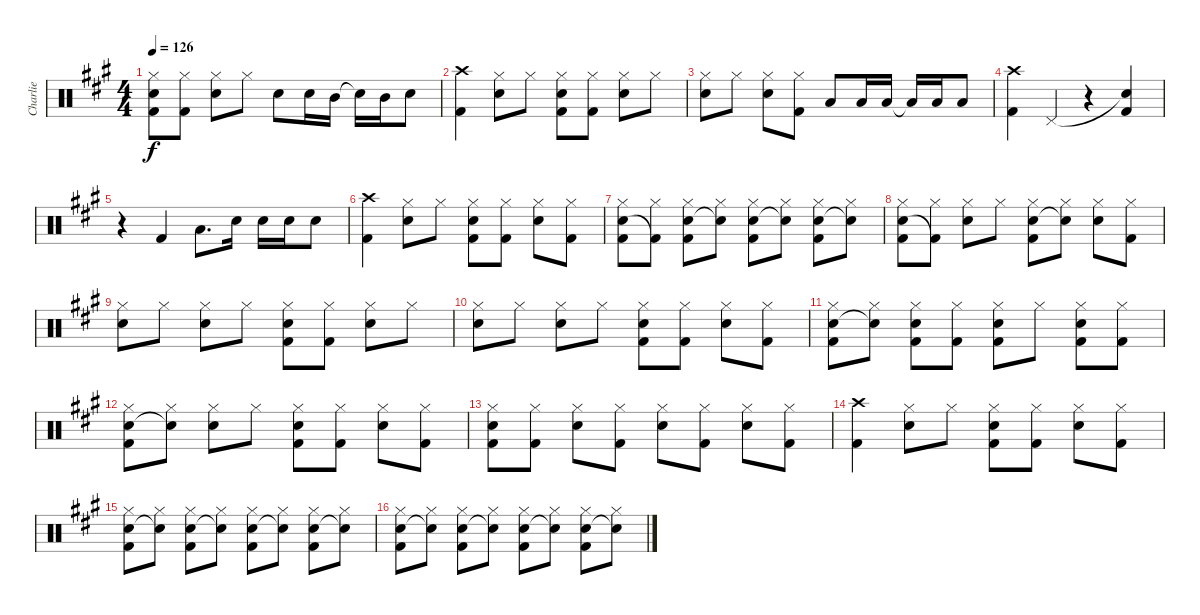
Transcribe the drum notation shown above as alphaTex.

\track ("Charlie" "Charlie") {instrument percussion}
\staff {score}
\articulation defaults
\ts (4 4)
\tempo 126
\clef neutral
\ks a
("Hi-Hat (closed)" "Snare (hit) 2" "Kick (hit) 2").8{dy f} ("Hi-Hat (closed)" "Kick (hit) 2").8 ("Hi-Hat (closed)" "Snare (hit) 2").8 "Hi-Hat (closed)".8 "Snare (hit) 2".8 "Snare (hit) 2".16 "Mid Tom (hit)".16 "Snare (hit)"{t}.16 "Mid Tom (hit)".16 "Snare (hit) 2".8 |
("Crash high (hit)" "Kick (hit) 2").4 ("Hi-Hat (closed)" "Snare (hit) 2").8 "Hi-Hat (closed)".8 ("Hi-Hat (closed)" "Snare (hit) 2" "Kick (hit) 2").8 ("Hi-Hat (closed)" "Kick (hit) 2").8 ("Hi-Hat (closed)" "Snare (hit) 2").8 "Hi-Hat (closed)".8 |
("Hi-Hat (closed)" "Snare (hit) 2").8 "Hi-Hat (closed)".8 ("Hi-Hat (closed)" "Snare (hit) 2").8 ("Hi-Hat (closed)" "Kick (hit) 2").8 "Low Tom (hit)".8 "Low Tom (hit)".16 "Low Tom (hit)".16 "Low Tom (hit)"{t}.16 "Low Tom (hit)".16 "Low Tom (hit)".8 |
("Crash high (hit)" "Kick (hit) 2").4 "Pedal Hi-Hat (hit)".4 r.4 ("Snare (hit)"{t} "Kick (hit) 2").4 |
r.4 "Kick (hit) 2".4 "Low Tom (hit)".8{d} "Snare (hit) 2".16 "Snare (hit) 2".16 "Snare (hit) 2".16 "Snare (hit) 2".8 |
("Crash high (hit)" "Kick (hit) 2").4 ("Hi-Hat (closed)" "Snare (hit) 2").8 "Hi-Hat (closed)".8 ("Hi-Hat (closed)" "Snare (hit) 2" "Kick (hit) 2").8 ("Hi-Hat (closed)" "Kick (hit) 2").8 ("Hi-Hat (closed)" "Snare (hit) 2").8 ("Hi-Hat (closed)" "Kick (hit) 2").8 |
("Hi-Hat (closed)" "Snare (hit) 2" "Kick (hit) 2").8 ("Hi-Hat (closed)" "Kick (hit) 2"{t}).8 ("Hi-Hat (closed)" "Snare (hit) 2" "Kick (hit) 2").8 ("Hi-Hat (closed)" "Snare (hit)"{t}).8 ("Hi-Hat (closed)" "Snare (hit) 2" "Kick (hit) 2").8 ("Hi-Hat (closed)" "Snare (hit)"{t}).8 ("Hi-Hat (closed)" "Snare (hit) 2" "Kick (hit) 2").8 ("Hi-Hat (closed)" "Snare (hit)"{t}).8 |
("Hi-Hat (closed)" "Snare (hit) 2" "Kick (hit) 2").8 ("Hi-Hat (closed)" "Kick (hit) 2"{t}).8 ("Hi-Hat (closed)" "Snare (hit) 2").8 "Hi-Hat (closed)".8 ("Hi-Hat (closed)" "Snare (hit) 2" "Kick (hit) 2").8 ("Hi-Hat (closed)" "Snare (hit)"{t}).8 ("Hi-Hat (closed)" "Snare (hit) 2").8 ("Hi-Hat (closed)" "Kick (hit) 2").8 |
("Hi-Hat (closed)" "Snare (hit) 2").8 "Hi-Hat (closed)".8 ("Hi-Hat (closed)" "Snare (hit) 2").8 "Hi-Hat (closed)".8 ("Hi-Hat (closed)" "Snare (hit) 2" "Kick (hit) 2").8 ("Hi-Hat (closed)" "Kick (hit) 2").8 ("Hi-Hat (closed)" "Snare (hit) 2").8 "Hi-Hat (closed)".8 |
("Hi-Hat (closed)" "Snare (hit) 2").8 "Hi-Hat (closed)".8 ("Hi-Hat (closed)" "Snare (hit) 2").8 "Hi-Hat (closed)".8 ("Hi-Hat (closed)" "Snare (hit) 2" "Kick (hit) 2").8 ("Hi-Hat (closed)" "Kick (hit) 2").8 ("Hi-Hat (closed)" "Snare (hit) 2").8 ("Hi-Hat (closed)" "Kick (hit) 2").8 |
("Hi-Hat (closed)" "Snare (hit) 2" "Kick (hit) 2").8 ("Hi-Hat (closed)" "Snare (hit)"{t}).8 ("Hi-Hat (closed)" "Snare (hit) 2" "Kick (hit) 2").8 ("Hi-Hat (closed)" "Kick (hit) 2").8 ("Hi-Hat (closed)" "Snare (hit) 2" "Kick (hit) 2").8 "Hi-Hat (closed)".8 ("Hi-Hat (closed)" "Snare (hit) 2" "Kick (hit) 2").8 ("Hi-Hat (closed)" "Kick (hit) 2").8 |
("Hi-Hat (closed)" "Snare (hit) 2" "Kick (hit) 2").8 ("Hi-Hat (closed)" "Snare (hit)"{t}).8 ("Hi-Hat (closed)" "Snare (hit) 2").8 "Hi-Hat (closed)".8 ("Hi-Hat (closed)" "Snare (hit) 2" "Kick (hit) 2").8 ("Hi-Hat (closed)" "Kick (hit) 2").8 ("Hi-Hat (closed)" "Snare (hit) 2").8 ("Hi-Hat (closed)" "Kick (hit) 2").8 |
("Hi-Hat (closed)" "Snare (hit) 2" "Kick (hit) 2").8 ("Hi-Hat (closed)" "Kick (hit) 2").8 ("Hi-Hat (closed)" "Snare (hit) 2").8 ("Hi-Hat (closed)" "Kick (hit) 2").8 ("Hi-Hat (closed)" "Snare (hit) 2").8 ("Hi-Hat (closed)" "Kick (hit) 2").8 ("Hi-Hat (closed)" "Snare (hit) 2").8 ("Hi-Hat (closed)" "Kick (hit) 2").8 |
("Crash high (hit)" "Kick (hit) 2").4 ("Hi-Hat (closed)" "Snare (hit) 2").8 "Hi-Hat (closed)".8 ("Hi-Hat (closed)" "Snare (hit) 2" "Kick (hit) 2").8 ("Hi-Hat (closed)" "Kick (hit) 2").8 ("Hi-Hat (closed)" "Snare (hit) 2").8 ("Hi-Hat (closed)" "Kick (hit) 2").8 |
("Hi-Hat (closed)" "Snare (hit) 2" "Kick (hit) 2").8 ("Hi-Hat (closed)" "Snare (hit)"{t}).8 ("Hi-Hat (closed)" "Snare (hit) 2" "Kick (hit) 2").8 ("Hi-Hat (closed)" "Snare (hit)"{t}).8 ("Hi-Hat (closed)" "Snare (hit) 2" "Kick (hit) 2").8 ("Hi-Hat (closed)" "Snare (hit)"{t}).8 ("Hi-Hat (closed)" "Snare (hit) 2" "Kick (hit) 2").8 ("Hi-Hat (closed)" "Snare (hit)"{t}).8 |
("Hi-Hat (closed)" "Snare (hit) 2" "Kick (hit) 2").8 ("Hi-Hat (closed)" "Snare (hit)"{t}).8 ("Hi-Hat (closed)" "Snare (hit) 2" "Kick (hit) 2").8 ("Hi-Hat (closed)" "Snare (hit)"{t}).8 ("Hi-Hat (closed)" "Snare (hit) 2" "Kick (hit) 2").8 ("Hi-Hat (closed)" "Snare (hit)"{t}).8 ("Hi-Hat (closed)" "Snare (hit) 2" "Kick (hit) 2").8 ("Hi-Hat (closed)" "Snare (hit)"{t}).8
